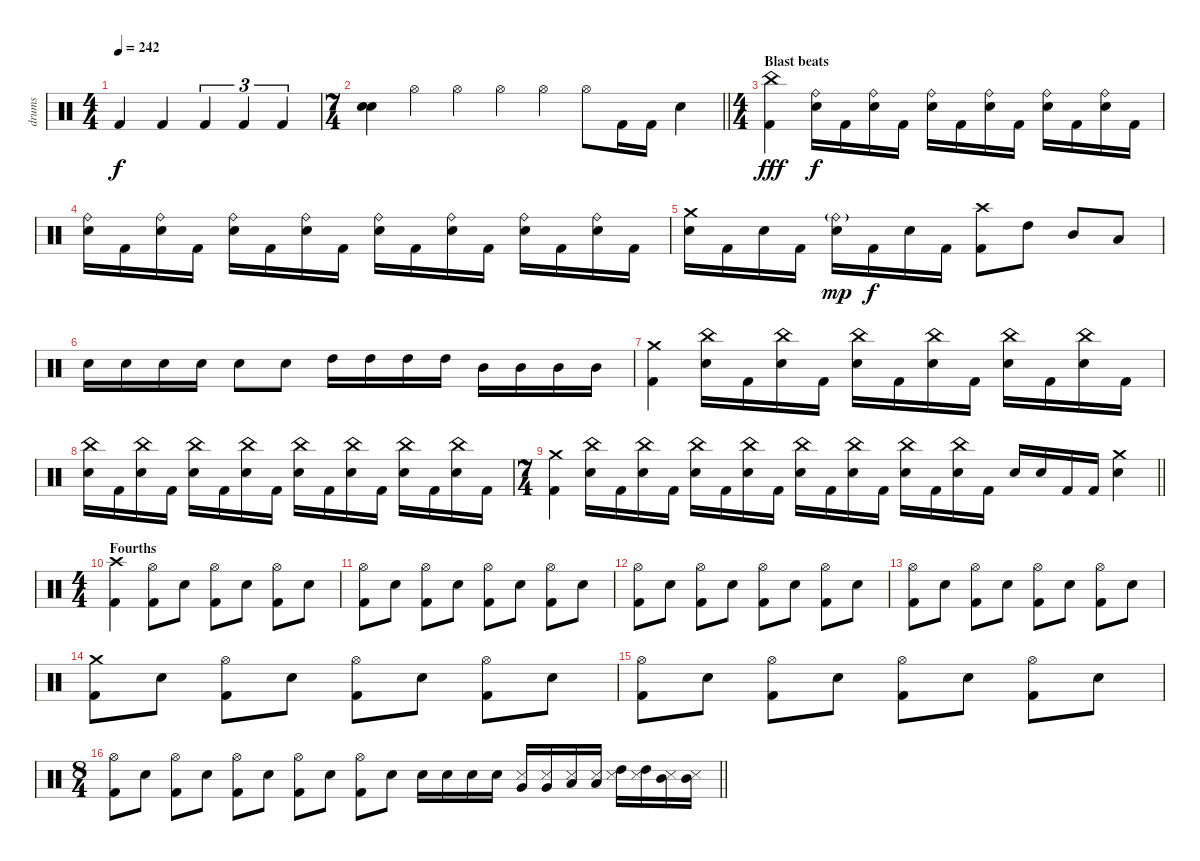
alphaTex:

\track ("drums" "drums") {instrument percussion}
\staff {score}
\articulation defaults
\ts (4 4)
\tempo 242
\clef neutral
\ks c "Kick (hit) 2".4{dy f} "Kick (hit) 2".4 "Kick (hit) 2".4{tu (3 2)} "Kick (hit) 2".4{tu (3 2)} "Kick (hit) 2".4{tu (3 2)}
|
\ts (7 4)
\barLineRight lightlight
("Electric Snare (hit)" "Electric Snare (hit)").4 "Hi-Hat (open)".4 "Hi-Hat (open)".4 "Hi-Hat (open)".4 "Hi-Hat (open)".4 "Hi-Hat (open)".8 "Kick (hit) 2".16 "Kick (hit) 2".16 "Electric Snare (hit)".4 |
\ts (4 4)
\section ("" "Blast beats")
("China (hit)" "Kick (hit) 2").4{dy fff} ("Ride (bell)" "Electric Snare (hit)").16{dy f} "Kick (hit) 2".16 ("Ride (bell)" "Electric Snare (hit)").16 "Kick (hit) 2".16 ("Ride (bell)" "Electric Snare (hit)").16 "Kick (hit) 2".16 ("Ride (bell)" "Electric Snare (hit)").16 "Kick (hit) 2".16 ("Ride (bell)" "Electric Snare (hit)").16 "Kick (hit) 2".16 ("Ride (bell)" "Electric Snare (hit)").16 "Kick (hit) 2".16 |
("Ride (bell)" "Electric Snare (hit)").16 "Kick (hit) 2".16 ("Ride (bell)" "Electric Snare (hit)").16 "Kick (hit) 2".16 ("Ride (bell)" "Electric Snare (hit)").16 "Kick (hit) 2".16 ("Ride (bell)" "Electric Snare (hit)").16 "Kick (hit) 2".16 ("Ride (bell)" "Electric Snare (hit)").16 "Kick (hit) 2".16 ("Ride (bell)" "Electric Snare (hit)").16 "Kick (hit) 2".16 ("Ride (bell)" "Electric Snare (hit)").16 "Kick (hit) 2".16 ("Ride (bell)" "Electric Snare (hit)").16 "Kick (hit) 2".16 |
("Crash medium (hit)" "Electric Snare (hit)").16 "Kick (hit) 2".16 "Electric Snare (hit)".16 "Kick (hit) 2".16 ("Ride (bell)"{g} "Electric Snare (hit)").16{dy mp} "Kick (hit) 2".16{dy f} "Electric Snare (hit)".16 "Kick (hit) 2".16 ("Crash high (hit)" "Kick (hit) 2").8 "High Tom (hit)".8 "Mid Tom (hit)".8 "Low Tom (hit)".8 |
"Electric Snare (hit)".16 "Electric Snare (hit)".16 "Electric Snare (hit)".16 "Electric Snare (hit)".16 "Electric Snare (hit)".8 "Electric Snare (hit)".8 "High Tom (hit)".16 "High Tom (hit)".16 "High Tom (hit)".16 "High Tom (hit)".16 "Mid Tom (hit)".16 "Mid Tom (hit)".16 "Mid Tom (hit)".16 "Mid Tom (hit)".16 |
("Crash medium (hit)" "Kick (hit) 2").4 ("China (hit)" "Electric Snare (hit)").16 "Kick (hit) 2".16 ("China (hit)" "Electric Snare (hit)").16 "Kick (hit) 2".16 ("China (hit)" "Electric Snare (hit)").16 "Kick (hit) 2".16 ("China (hit)" "Electric Snare (hit)").16 "Kick (hit) 2".16 ("China (hit)" "Electric Snare (hit)").16 "Kick (hit) 2".16 ("China (hit)" "Electric Snare (hit)").16 "Kick (hit) 2".16 |
("China (hit)" "Electric Snare (hit)").16 "Kick (hit) 2".16 ("China (hit)" "Electric Snare (hit)").16 "Kick (hit) 2".16 ("China (hit)" "Electric Snare (hit)").16 "Kick (hit) 2".16 ("China (hit)" "Electric Snare (hit)").16 "Kick (hit) 2".16 ("China (hit)" "Electric Snare (hit)").16 "Kick (hit) 2".16 ("China (hit)" "Electric Snare (hit)").16 "Kick (hit) 2".16 ("China (hit)" "Electric Snare (hit)").16 "Kick (hit) 2".16 ("China (hit)" "Electric Snare (hit)").16 "Kick (hit) 2".16 |
\ts (7 4)
\barLineRight lightlight
("Crash medium (hit)" "Kick (hit) 2").4 ("China (hit)" "Electric Snare (hit)").16 "Kick (hit) 2".16 ("China (hit)" "Electric Snare (hit)").16 "Kick (hit) 2".16 ("China (hit)" "Electric Snare (hit)").16 "Kick (hit) 2".16 ("China (hit)" "Electric Snare (hit)").16 "Kick (hit) 2".16 ("China (hit)" "Electric Snare (hit)").16 "Kick (hit) 2".16 ("China (hit)" "Electric Snare (hit)").16 "Kick (hit) 2".16 ("China (hit)" "Electric Snare (hit)").16 "Kick (hit) 2".16 ("China (hit)" "Electric Snare (hit)").16 "Kick (hit) 2".16 "Electric Snare (hit)".16 "Electric Snare (hit)".16 "Kick (hit) 2".16 "Kick (hit) 2".16 ("Crash medium (hit)" "Electric Snare (hit)").4 |
\ts (4 4)
\section ("" "Fourths")
("Crash high (hit)" "Kick (hit) 2").4 ("Hi-Hat (open)" "Kick (hit) 2").8 "Electric Snare (hit)".8 ("Hi-Hat (open)" "Kick (hit) 2").8 "Electric Snare (hit)".8 ("Hi-Hat (open)" "Kick (hit) 2").8 "Electric Snare (hit)".8 |
("Hi-Hat (open)" "Kick (hit) 2").8 "Electric Snare (hit)".8 ("Hi-Hat (open)" "Kick (hit) 2").8 "Electric Snare (hit)".8 ("Hi-Hat (open)" "Kick (hit) 2").8 "Electric Snare (hit)".8 ("Hi-Hat (open)" "Kick (hit) 2").8 "Electric Snare (hit)".8 |
("Hi-Hat (open)" "Kick (hit) 2").8 "Electric Snare (hit)".8 ("Hi-Hat (open)" "Kick (hit) 2").8 "Electric Snare (hit)".8 ("Hi-Hat (open)" "Kick (hit) 2").8 "Electric Snare (hit)".8 ("Hi-Hat (open)" "Kick (hit) 2").8 "Electric Snare (hit)".8 |
("Hi-Hat (open)" "Kick (hit) 2").8 "Electric Snare (hit)".8 ("Hi-Hat (open)" "Kick (hit) 2").8 "Electric Snare (hit)".8 ("Hi-Hat (open)" "Kick (hit) 2").8 "Electric Snare (hit)".8 ("Hi-Hat (open)" "Kick (hit) 2").8 "Electric Snare (hit)".8 |
("Crash medium (hit)" "Kick (hit) 2").8 "Electric Snare (hit)".8 ("Hi-Hat (open)" "Kick (hit) 2").8 "Electric Snare (hit)".8 ("Hi-Hat (open)" "Kick (hit) 2").8 "Electric Snare (hit)".8 ("Hi-Hat (open)" "Kick (hit) 2").8 "Electric Snare (hit)".8 |
("Hi-Hat (open)" "Kick (hit) 2").8 "Electric Snare (hit)".8 ("Hi-Hat (open)" "Kick (hit) 2").8 "Electric Snare (hit)".8 ("Hi-Hat (open)" "Kick (hit) 2").8 "Electric Snare (hit)".8 ("Hi-Hat (open)" "Kick (hit) 2").8 "Electric Snare (hit)".8 |
\ts (8 4)
\barLineRight lightlight
("Hi-Hat (open)" "Kick (hit) 2").8 "Electric Snare (hit)".8 ("Hi-Hat (open)" "Kick (hit) 2").8 "Electric Snare (hit)".8 ("Hi-Hat (open)" "Kick (hit) 2").8 "Electric Snare (hit)".8 ("Hi-Hat (open)" "Kick (hit) 2").8 "Electric Snare (hit)".8 ("Hi-Hat (open)" "Kick (hit) 2").8 "Electric Snare (hit)".8 "Electric Snare (hit)".16 "Electric Snare (hit)".16 "Electric Snare (hit)".16 "Electric Snare (hit)".16 ("Metronome (hit)" "Very Low Tom (hit)").16 ("Metronome (hit)" "Very Low Tom (hit)").16 ("Metronome (hit)" "Low Tom (hit)").16 ("Metronome (hit)" "Low Tom (hit)").16 ("Metronome (hit)" "High Tom (hit)").16 ("Metronome (hit)" "High Tom (hit)").16 ("Metronome (hit)" "Mid Tom (hit)").16 ("Metronome (hit)" "Mid Tom (hit)").16
